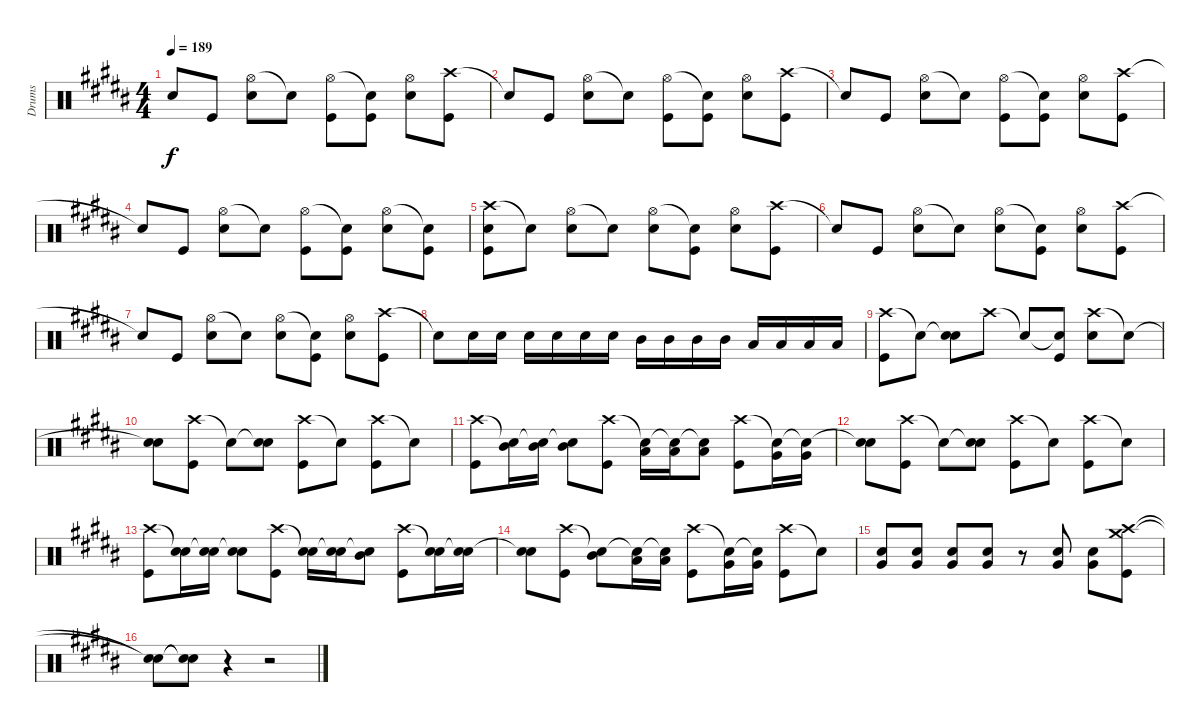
\track ("Drums" "Drums") {instrument percussion}
\staff {score}
\articulation defaults
\ts (4 4)
\tempo 189
\clef neutral
\ks b "Snare (hit)"{t}.8{dy f} "Kick (hit)".8
("Hi-Hat (open)" "Snare (hit) 2").8 "Snare (hit)"{t}.8 ("Hi-Hat (open)" "Kick (hit)").8 ("Snare (hit)"{t} "Kick (hit)").8 ("Hi-Hat (open)" "Snare (hit) 2").8 ("Crash high (hit)" "Kick (hit)").8 |
"Snare (hit)"{t}.8 "Kick (hit)".8 ("Hi-Hat (open)" "Snare (hit) 2").8 "Snare (hit)"{t}.8 ("Hi-Hat (open)" "Kick (hit)").8 ("Snare (hit)"{t} "Kick (hit)").8 ("Hi-Hat (open)" "Snare (hit) 2").8 ("Crash high (hit)" "Kick (hit)").8 |
"Snare (hit)"{t}.8 "Kick (hit)".8 ("Hi-Hat (open)" "Snare (hit) 2").8 "Snare (hit)"{t}.8 ("Hi-Hat (open)" "Kick (hit)").8 ("Snare (hit)"{t} "Kick (hit)").8 ("Hi-Hat (open)" "Snare (hit) 2").8 ("Crash high (hit)" "Kick (hit)").8 |
"Snare (hit)"{t}.8 "Kick (hit)".8 ("Hi-Hat (open)" "Snare (hit) 2").8 "Snare (hit)"{t}.8 ("Hi-Hat (open)" "Kick (hit)").8 ("Snare (hit)"{t} "Kick (hit)").8 ("Hi-Hat (open)" "Snare (hit) 2").8 ("Snare (hit)"{t} "Kick (hit)").8 |
("Crash high (hit)" "Snare (hit) 2" "Kick (hit)").8 "Snare (hit)"{t}.8 ("Hi-Hat (open)" "Snare (hit) 2").8 "Snare (hit)"{t}.8 ("Hi-Hat (open)" "Snare (hit) 2").8 ("Snare (hit)"{t} "Kick (hit)").8 ("Hi-Hat (open)" "Snare (hit) 2").8 ("Crash high (hit)" "Kick (hit)").8 |
"Snare (hit)"{t}.8 "Kick (hit)".8 ("Hi-Hat (open)" "Snare (hit) 2").8 "Snare (hit)"{t}.8 ("Hi-Hat (open)" "Snare (hit) 2").8 ("Snare (hit)"{t} "Kick (hit)").8 ("Hi-Hat (open)" "Snare (hit) 2").8 ("Crash high (hit)" "Kick (hit)").8 |
"Snare (hit)"{t}.8 "Kick (hit)".8 ("Hi-Hat (open)" "Snare (hit) 2").8 "Snare (hit)"{t}.8 ("Hi-Hat (open)" "Snare (hit) 2").8 ("Snare (hit)"{t} "Kick (hit)").8 ("Hi-Hat (open)" "Snare (hit) 2").8 ("Crash high (hit)" "Kick (hit)").8 |
"Snare (hit)"{t}.8 "Snare (hit) 2".16 "Snare (hit) 2".16 "Snare (hit) 2".16 "Snare (hit) 2".16 "Snare (hit) 2".16 "Snare (hit) 2".16 "Mid Tom (hit)".16 "Mid Tom (hit)".16 "Mid Tom (hit)".16 "Mid Tom (hit)".16 "Low Tom (hit)".16 "Low Tom (hit)".16 "Low Tom (hit)".16 "Low Tom (hit)".16 |
("Crash high (hit)" "Kick (hit)").8 "Snare (hit)"{t}.8 ("Snare (hit)"{t} "Snare (hit) 2").8 "Crash high (hit)".8 "Snare (hit)"{t}.8 ("Snare (hit)"{t} "Kick (hit)").8 ("Crash high (hit)" "Snare (hit) 2").8 "Snare (hit)"{t}.8 |
("Snare (hit)"{t} "Snare (hit) 2").8 ("Crash high (hit)" "Kick (hit)").8 "Snare (hit)"{t}.8 ("Snare (hit)"{t} "Snare (hit) 2").8 ("Crash high (hit)" "Kick (hit)").8 "Snare (hit)"{t}.8 ("Crash high (hit)" "Kick (hit)").8 "Snare (hit)"{t}.8 |
("Crash high (hit)" "Kick (hit)").8 ("Snare (hit)"{t} "Mid Tom (hit)").16 ("Snare (hit)"{t} "Mid Tom (hit)").16 ("Snare (hit)"{t} "Mid Tom (hit)").8 ("Crash high (hit)" "Kick (hit)").8 ("Snare (hit)"{t} "Low Tom (hit)").16 ("Snare (hit)"{t} "Low Tom (hit)").16 ("Snare (hit)"{t} "Low Tom (hit)").8 ("Crash high (hit)" "Kick (hit)").8 ("Snare (hit)"{t} "Very Low Tom (hit)").16 ("Snare (hit)"{t} "Very Low Tom (hit)").16 |
("Snare (hit)"{t} "Snare (hit) 2").8 ("Crash high (hit)" "Kick (hit)").8 "Snare (hit)"{t}.8 ("Snare (hit)"{t} "Snare (hit) 2").8 ("Crash high (hit)" "Kick (hit)").8 "Snare (hit)"{t}.8 ("Crash high (hit)" "Kick (hit)").8 "Snare (hit)"{t}.8 |
("Crash high (hit)" "Kick (hit)").8 ("Snare (hit)"{t} "Snare (hit) 2").16 ("Snare (hit)"{t} "Snare (hit) 2").16 ("Snare (hit)"{t} "Snare (hit) 2").8 ("Crash high (hit)" "Kick (hit)").8 ("Snare (hit)"{t} "Snare (hit) 2").16 ("Snare (hit)"{t} "Snare (hit) 2").16 ("Snare (hit)"{t} "Mid Tom (hit)").8 ("Crash high (hit)" "Kick (hit)").8 ("Snare (hit)"{t} "Snare (hit) 2").16 ("Snare (hit)"{t} "Snare (hit) 2").16 |
("Snare (hit)"{t} "Snare (hit) 2").8 ("Crash high (hit)" "Kick (hit)").8 ("Snare (hit)"{t} "Mid Tom (hit)").8 ("Snare (hit)"{t} "Low Tom (hit)").16 ("Snare (hit)"{t} "Low Tom (hit)").16 ("Crash high (hit)" "Kick (hit)").8 ("Snare (hit)"{t} "Very Low Tom (hit)").16 ("Snare (hit)"{t} "Very Low Tom (hit)").16 ("Crash high (hit)" "Kick (hit)").8 "Snare (hit)"{t}.8 |
("Snare (hit) 2" "Very Low Tom (hit)").8 ("Snare (hit) 2" "Very Low Tom (hit)").8 ("Snare (hit) 2" "Very Low Tom (hit)").8 ("Snare (hit) 2" "Very Low Tom (hit)").8 r.8 ("Snare (hit) 2" "Very Low Tom (hit)").8 ("Snare (hit) 2" "Very Low Tom (hit)").8 ("Crash high (hit)" "Crash medium (hit)" "Kick (hit)").8 |
("Snare (hit)"{t} "Snare (hit)"{t}).8 ("Snare (hit)"{t} "Snare (hit)"{t}).8 r.4 r.2
